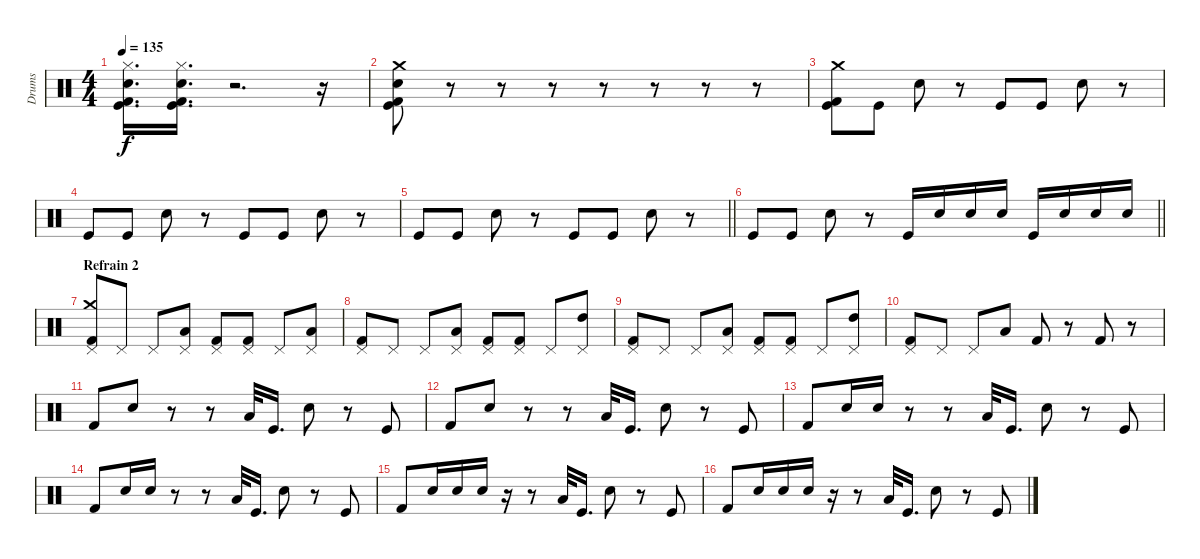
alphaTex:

\track ("Drums" "Drums") {instrument percussion}
\staff {score}
\articulation defaults
\ts (4 4)
\tempo 135
\clef neutral
\ks c
("Kick (hit)" "Snare (hit) 2" "Kick (hit) 2" "Hi-Hat (closed)").16{d dy f} ("Kick (hit)" "Snare (hit) 2" "Kick (hit) 2" "Hi-Hat (closed)").16{d} r.2{d} r.16 |
("Kick (hit)" "Snare (hit) 2" "Kick (hit) 2" "Crash medium (hit)").8 r.8 r.8 r.8 r.8 r.8 r.8 r.8 |
("Kick (hit)" "Kick (hit) 2" "Crash medium (hit)").8 "Kick (hit)".8 "Snare (hit) 2".8 r.8 "Kick (hit)".8 "Kick (hit)".8 "Snare (hit) 2".8 r.8 |
"Kick (hit)".8 "Kick (hit)".8 "Snare (hit) 2".8 r.8 "Kick (hit)".8 "Kick (hit)".8 "Snare (hit) 2".8 r.8 |
\barLineRight lightlight "Kick (hit)".8 "Kick (hit)".8 "Snare (hit) 2".8
r.8 "Kick (hit)".8 "Kick (hit)".8 "Snare (hit) 2".8 r.8 |
\barLineRight lightlight "Kick (hit)".8 "Kick (hit)".8 "Snare (hit) 2".8
r.8 "Kick (hit)".16 "Snare (hit) 2".16 "Snare (hit) 2".16 "Snare (hit) 2".16{beam split} "Kick (hit)".16 "Snare (hit) 2".16{beam merge} "Snare (hit) 2".16 "Snare (hit) 2".16 |
\section ("" "Refrain 2")
("Kick (hit) 2" "Crash medium (hit)" "Pedal Hi-Hat (hit)").8 "Pedal Hi-Hat (hit)".8 "Pedal Hi-Hat (hit)".8 ("Low Tom (hit)" "Pedal Hi-Hat (hit)").8 ("Kick (hit) 2" "Pedal Hi-Hat (hit)").8 ("Kick (hit) 2" "Pedal Hi-Hat (hit)").8 "Pedal Hi-Hat (hit)".8 ("Low Tom (hit)" "Pedal Hi-Hat (hit)").8 |
("Kick (hit) 2" "Pedal Hi-Hat (hit)").8 "Pedal Hi-Hat (hit)".8 "Pedal Hi-Hat (hit)".8 ("Low Tom (hit)" "Pedal Hi-Hat (hit)").8 ("Kick (hit) 2" "Pedal Hi-Hat (hit)").8 ("Kick (hit) 2" "Pedal Hi-Hat (hit)").8 "Pedal Hi-Hat (hit)".8 ("High Tom (hit)" "Pedal Hi-Hat (hit)").8 |
("Kick (hit) 2" "Pedal Hi-Hat (hit)").8 "Pedal Hi-Hat (hit)".8 "Pedal Hi-Hat (hit)".8 ("Low Tom (hit)" "Pedal Hi-Hat (hit)").8 ("Kick (hit) 2" "Pedal Hi-Hat (hit)").8 ("Kick (hit) 2" "Pedal Hi-Hat (hit)").8 "Pedal Hi-Hat (hit)".8 ("High Tom (hit)" "Pedal Hi-Hat (hit)").8 |
("Kick (hit) 2" "Pedal Hi-Hat (hit)").8 "Pedal Hi-Hat (hit)".8 "Pedal Hi-Hat (hit)".8 "Low Tom (hit)".8 "Kick (hit) 2".8 r.8 "Kick (hit) 2".8 r.8 |
"Kick (hit) 2".8 "Snare (hit) 2".8 r.8 r.8 "Low Tom (hit)".32 "Kick (hit)".16{d beam split} "Snare (hit) 2".8 r.8 "Kick (hit)".8 |
"Kick (hit) 2".8 "Snare (hit) 2".8 r.8 r.8 "Low Tom (hit)".32 "Kick (hit)".16{d beam split} "Snare (hit) 2".8 r.8 "Kick (hit)".8 |
"Kick (hit) 2".8 "Snare (hit) 2".16 "Snare (hit) 2".16 r.8 r.8 "Low Tom (hit)".32 "Kick (hit)".16{d beam split} "Snare (hit) 2".8 r.8 "Kick (hit)".8 |
"Kick (hit) 2".8 "Snare (hit) 2".16 "Snare (hit) 2".16 r.8 r.8 "Low Tom (hit)".32 "Kick (hit)".16{d beam split} "Snare (hit) 2".8 r.8 "Kick (hit)".8 |
"Kick (hit) 2".8 "Snare (hit) 2".16 "Snare (hit) 2".16{beam merge} "Snare (hit) 2".16 r.16 r.8 "Low Tom (hit)".32 "Kick (hit)".16{d beam split} "Snare (hit) 2".8 r.8 "Kick (hit)".8 |
"Kick (hit) 2".8 "Snare (hit) 2".16 "Snare (hit) 2".16{beam merge} "Snare (hit) 2".16 r.16 r.8 "Low Tom (hit)".32 "Kick (hit)".16{d beam split} "Snare (hit) 2".8 r.8 "Kick (hit)".8
